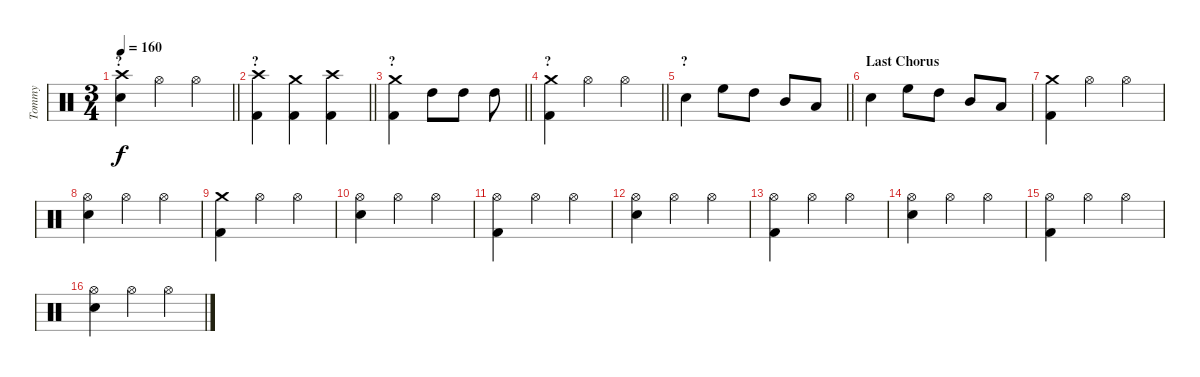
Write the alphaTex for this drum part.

\track ("Tommy" "Tommy") {instrument percussion}
\staff {score}
\articulation defaults
\ts (3 4)
\section ("" "?")
\tempo 160
\clef neutral
\barLineRight lightlight
\ks c
("Electric Snare (hit)" "Crash high (hit)").4{dy f} "Hi-Hat (open)".4 "Hi-Hat (open)".4 |
\section ("" "?")
\barLineRight lightlight
("Crash high (hit)" "Kick (hit) 2").4 ("Crash medium (hit)" "Kick (hit) 2").4 ("Crash high (hit)" "Kick (hit) 2").4 |
\section ("" "?")
\barLineRight lightlight
("Crash medium (hit)" "Kick (hit) 2").4 "High Tom (hit)".8 "High Tom (hit)".8 "High Tom (hit)".8 |
\section ("" "?")
\barLineRight lightlight
("Crash medium (hit)" "Kick (hit) 2").4 "Hi-Hat (open)".4 "Hi-Hat (open)".4 |
\section ("" "?")
\barLineRight lightlight "Electric Snare (hit)".4 "High Floor Tom (hit)".8 "High Tom (hit)".8 "Mid Tom (hit)".8 "Low Tom (hit)".8
|
\section ("" "Last Chorus")
"Electric Snare (hit)".4 "High Floor Tom (hit)".8 "High Tom (hit)".8 "Mid Tom (hit)".8 "Low Tom (hit)".8 |
("Crash medium (hit)" "Kick (hit) 2").4 "Hi-Hat (open)".4 "Hi-Hat (open)".4 |
("Hi-Hat (open)" "Electric Snare (hit)").4 "Hi-Hat (open)".4 "Hi-Hat (open)".4 |
("Crash medium (hit)" "Kick (hit) 2").4 "Hi-Hat (open)".4 "Hi-Hat (open)".4 |
("Hi-Hat (open)" "Electric Snare (hit)").4 "Hi-Hat (open)".4 "Hi-Hat (open)".4 |
("Hi-Hat (open)" "Kick (hit) 2").4 "Hi-Hat (open)".4 "Hi-Hat (open)".4 |
("Hi-Hat (open)" "Electric Snare (hit)").4 "Hi-Hat (open)".4 "Hi-Hat (open)".4 |
("Hi-Hat (open)" "Kick (hit) 2").4 "Hi-Hat (open)".4 "Hi-Hat (open)".4 |
("Hi-Hat (open)" "Electric Snare (hit)").4 "Hi-Hat (open)".4 "Hi-Hat (open)".4 |
("Hi-Hat (open)" "Kick (hit) 2").4 "Hi-Hat (open)".4 "Hi-Hat (open)".4 |
("Hi-Hat (open)" "Electric Snare (hit)").4 "Hi-Hat (open)".4 "Hi-Hat (open)".4
